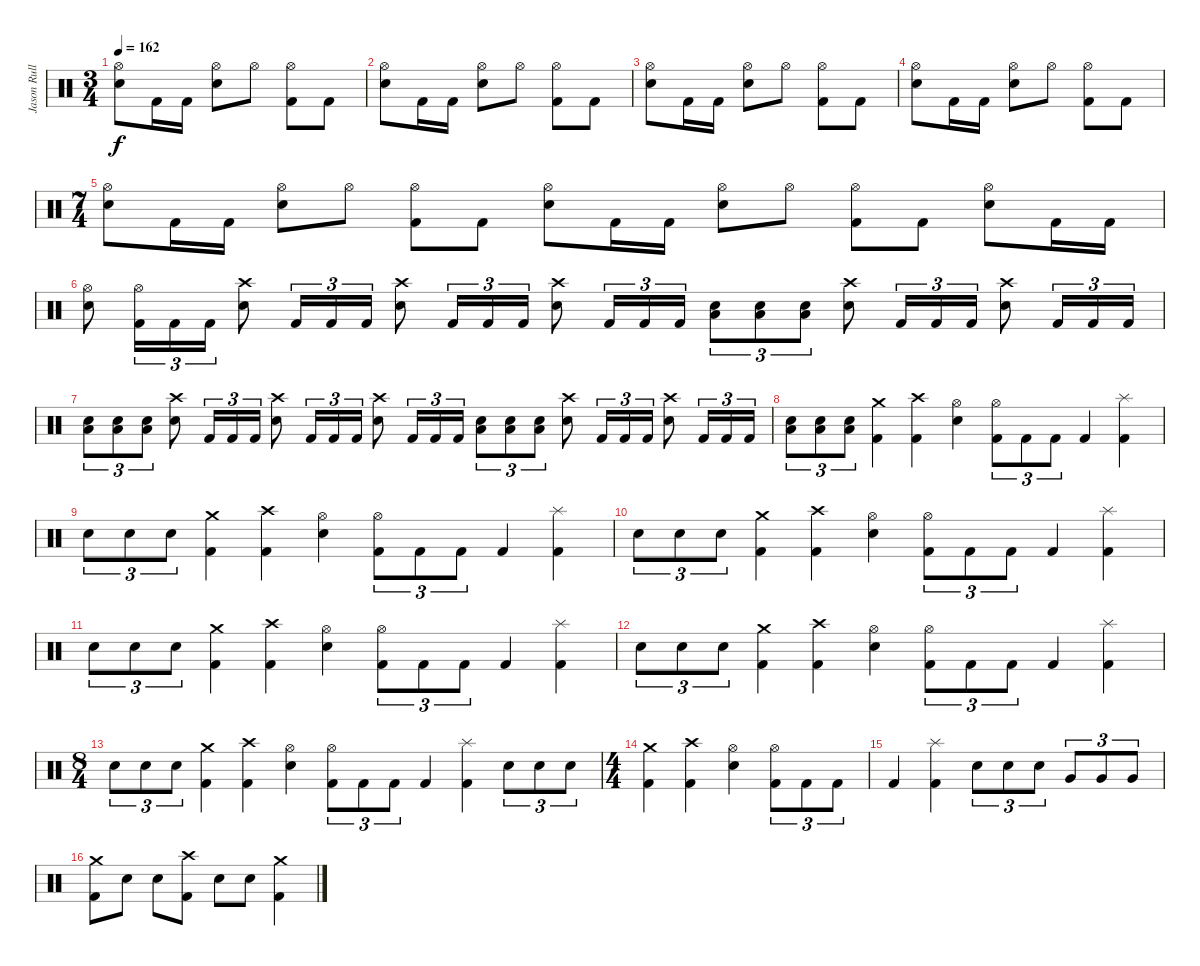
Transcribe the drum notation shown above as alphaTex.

\track ("Jason Rullo" "Jason Rull") {instrument percussion}
\staff {score}
\articulation defaults
\ts (3 4)
\tempo 162
\clef neutral
\ks c
("Hi-Hat (open)" "Electric Snare (hit)").8{dy f} "Kick (hit) 2".16 "Kick (hit) 2".16 ("Hi-Hat (open)" "Electric Snare (hit)").8 "Hi-Hat (open)".8 ("Hi-Hat (open)" "Kick (hit) 2").8 "Kick (hit) 2".8 |
("Hi-Hat (open)" "Electric Snare (hit)").8 "Kick (hit) 2".16 "Kick (hit) 2".16 ("Hi-Hat (open)" "Electric Snare (hit)").8 "Hi-Hat (open)".8 ("Hi-Hat (open)" "Kick (hit) 2").8 "Kick (hit) 2".8 |
("Hi-Hat (open)" "Electric Snare (hit)").8 "Kick (hit) 2".16 "Kick (hit) 2".16 ("Hi-Hat (open)" "Electric Snare (hit)").8 "Hi-Hat (open)".8 ("Hi-Hat (open)" "Kick (hit) 2").8 "Kick (hit) 2".8 |
("Hi-Hat (open)" "Electric Snare (hit)").8 "Kick (hit) 2".16 "Kick (hit) 2".16 ("Hi-Hat (open)" "Electric Snare (hit)").8 "Hi-Hat (open)".8 ("Hi-Hat (open)" "Kick (hit) 2").8 "Kick (hit) 2".8 |
\ts (7 4)
("Hi-Hat (open)" "Electric Snare (hit)").8 "Kick (hit) 2".16 "Kick (hit) 2".16 ("Hi-Hat (open)" "Electric Snare (hit)").8 "Hi-Hat (open)".8 ("Hi-Hat (open)" "Kick (hit) 2").8 "Kick (hit) 2".8 ("Hi-Hat (open)" "Electric Snare (hit)").8 "Kick (hit) 2".16 "Kick (hit) 2".16 ("Hi-Hat (open)" "Electric Snare (hit)").8 "Hi-Hat (open)".8 ("Hi-Hat (open)" "Kick (hit) 2").8 "Kick (hit) 2".8 ("Hi-Hat (open)" "Electric Snare (hit)").8 "Kick (hit) 2".16 "Kick (hit) 2".16 |
("Hi-Hat (open)" "Electric Snare (hit)").8 ("Kick (hit) 2" "Hi-Hat (open)").16{tu (3 2)} "Kick (hit) 2".16{tu (3 2)} "Kick (hit) 2".16{tu (3 2)} ("Crash high (hit)" "Electric Snare (hit)").8 "Kick (hit) 2".16{tu (3 2)} "Kick (hit) 2".16{tu (3 2)} "Kick (hit) 2".16{tu (3 2)} ("Crash high (hit)" "Electric Snare (hit)").8 "Kick (hit) 2".16{tu (3 2)} "Kick (hit) 2".16{tu (3 2)} "Kick (hit) 2".16{tu (3 2)} ("Crash high (hit)" "Electric Snare (hit)").8 "Kick (hit) 2".16{tu (3 2)} "Kick (hit) 2".16{tu (3 2)} "Kick (hit) 2".16{tu (3 2)} ("Low Tom (hit)" "Electric Snare (hit)").8{tu (3 2)} ("Low Tom (hit)" "Electric Snare (hit)").8{tu (3 2)} ("Low Tom (hit)" "Electric Snare (hit)").8{tu (3 2)} ("Crash high (hit)" "Electric Snare (hit)").8 "Kick (hit) 2".16{tu (3 2)} "Kick (hit) 2".16{tu (3 2)} "Kick (hit) 2".16{tu (3 2)} ("Crash high (hit)" "Electric Snare (hit)").8 "Kick (hit) 2".16{tu (3 2)} "Kick (hit) 2".16{tu (3 2)} "Kick (hit) 2".16{tu (3 2)} |
("Low Tom (hit)" "Electric Snare (hit)").8{tu (3 2)} ("Low Tom (hit)" "Electric Snare (hit)").8{tu (3 2)} ("Low Tom (hit)" "Electric Snare (hit)").8{tu (3 2)} ("Crash high (hit)" "Electric Snare (hit)").8 "Kick (hit) 2".16{tu (3 2)} "Kick (hit) 2".16{tu (3 2)} "Kick (hit) 2".16{tu (3 2)} ("Crash high (hit)" "Electric Snare (hit)").8 "Kick (hit) 2".16{tu (3 2)} "Kick (hit) 2".16{tu (3 2)} "Kick (hit) 2".16{tu (3 2)} ("Crash high (hit)" "Electric Snare (hit)").8 "Kick (hit) 2".16{tu (3 2)} "Kick (hit) 2".16{tu (3 2)} "Kick (hit) 2".16{tu (3 2)} ("Low Tom (hit)" "Electric Snare (hit)").8{tu (3 2)} ("Low Tom (hit)" "Electric Snare (hit)").8{tu (3 2)} ("Low Tom (hit)" "Electric Snare (hit)").8{tu (3 2)} ("Crash high (hit)" "Electric Snare (hit)").8 "Kick (hit) 2".16{tu (3 2)} "Kick (hit) 2".16{tu (3 2)} "Kick (hit) 2".16{tu (3 2)} ("Crash high (hit)" "Electric Snare (hit)").8 "Kick (hit) 2".16{tu (3 2)} "Kick (hit) 2".16{tu (3 2)} "Kick (hit) 2".16{tu (3 2)} |
("Low Tom (hit)" "Electric Snare (hit)").8{tu (3 2)} ("Low Tom (hit)" "Electric Snare (hit)").8{tu (3 2)} ("Low Tom (hit)" "Electric Snare (hit)").8{tu (3 2)} ("Crash medium (hit)" "Kick (hit) 2").4 ("Crash high (hit)" "Kick (hit) 2").4 ("Hi-Hat (open)" "Electric Snare (hit)").4 ("Hi-Hat (open)" "Kick (hit) 2").8{tu (3 2)} "Kick (hit) 2".8{tu (3 2)} "Kick (hit) 2".8{tu (3 2)} "Kick (hit) 2".4 ("Splash (hit)" "Kick (hit) 2").4 |
"Electric Snare (hit)".8{tu (3 2)} "Electric Snare (hit)".8{tu (3 2)} "Electric Snare (hit)".8{tu (3 2)} ("Crash medium (hit)" "Kick (hit) 2").4 ("Crash high (hit)" "Kick (hit) 2").4 ("Hi-Hat (open)" "Electric Snare (hit)").4 ("Hi-Hat (open)" "Kick (hit) 2").8{tu (3 2)} "Kick (hit) 2".8{tu (3 2)} "Kick (hit) 2".8{tu (3 2)} "Kick (hit) 2".4 ("Splash (hit)" "Kick (hit) 2").4 |
"Electric Snare (hit)".8{tu (3 2)} "Electric Snare (hit)".8{tu (3 2)} "Electric Snare (hit)".8{tu (3 2)} ("Crash medium (hit)" "Kick (hit) 2").4 ("Crash high (hit)" "Kick (hit) 2").4 ("Hi-Hat (open)" "Electric Snare (hit)").4 ("Hi-Hat (open)" "Kick (hit) 2").8{tu (3 2)} "Kick (hit) 2".8{tu (3 2)} "Kick (hit) 2".8{tu (3 2)} "Kick (hit) 2".4 ("Splash (hit)" "Kick (hit) 2").4 |
"Electric Snare (hit)".8{tu (3 2)} "Electric Snare (hit)".8{tu (3 2)} "Electric Snare (hit)".8{tu (3 2)} ("Crash medium (hit)" "Kick (hit) 2").4 ("Crash high (hit)" "Kick (hit) 2").4 ("Hi-Hat (open)" "Electric Snare (hit)").4 ("Hi-Hat (open)" "Kick (hit) 2").8{tu (3 2)} "Kick (hit) 2".8{tu (3 2)} "Kick (hit) 2".8{tu (3 2)} "Kick (hit) 2".4 ("Splash (hit)" "Kick (hit) 2").4 |
"Electric Snare (hit)".8{tu (3 2)} "Electric Snare (hit)".8{tu (3 2)} "Electric Snare (hit)".8{tu (3 2)} ("Crash medium (hit)" "Kick (hit) 2").4 ("Crash high (hit)" "Kick (hit) 2").4 ("Hi-Hat (open)" "Electric Snare (hit)").4 ("Hi-Hat (open)" "Kick (hit) 2").8{tu (3 2)} "Kick (hit) 2".8{tu (3 2)} "Kick (hit) 2".8{tu (3 2)} "Kick (hit) 2".4 ("Splash (hit)" "Kick (hit) 2").4 |
\ts (8 4)
"Electric Snare (hit)".8{tu (3 2)} "Electric Snare (hit)".8{tu (3 2)} "Electric Snare (hit)".8{tu (3 2)} ("Crash medium (hit)" "Kick (hit) 2").4 ("Crash high (hit)" "Kick (hit) 2").4 ("Hi-Hat (open)" "Electric Snare (hit)").4 ("Hi-Hat (open)" "Kick (hit) 2").8{tu (3 2)} "Kick (hit) 2".8{tu (3 2)} "Kick (hit) 2".8{tu (3 2)} "Kick (hit) 2".4 ("Splash (hit)" "Kick (hit) 2").4 "Electric Snare (hit)".8{tu (3 2)} "Electric Snare (hit)".8{tu (3 2)} "Electric Snare (hit)".8{tu (3 2)} |
\ts (4 4)
("Crash medium (hit)" "Kick (hit) 2").4 ("Crash high (hit)" "Kick (hit) 2").4 ("Hi-Hat (open)" "Electric Snare (hit)").4 ("Hi-Hat (open)" "Kick (hit) 2").8{tu (3 2)} "Kick (hit) 2".8{tu (3 2)} "Kick (hit) 2".8{tu (3 2)} |
"Kick (hit) 2".4 ("Splash (hit)" "Kick (hit) 2").4 "Electric Snare (hit)".8{tu (3 2)} "Electric Snare (hit)".8{tu (3 2)} "Electric Snare (hit)".8{tu (3 2)} "Very Low Tom (hit)".8{tu (3 2)} "Very Low Tom (hit)".8{tu (3 2)} "Very Low Tom (hit)".8{tu (3 2)} |
("Crash medium (hit)" "Kick (hit) 2").8 "Electric Snare (hit)".8 "Electric Snare (hit)".8 ("Crash high (hit)" "Kick (hit) 2").8 "Electric Snare (hit)".8 "Electric Snare (hit)".8 ("Crash medium (hit)" "Kick (hit) 2").4
